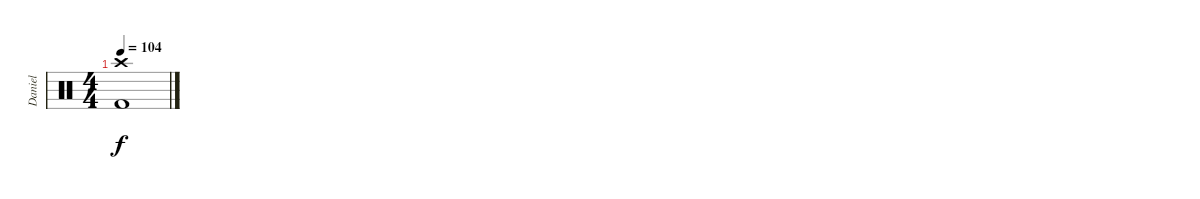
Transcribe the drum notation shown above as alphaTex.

\track ("Daniel" "Daniel") {instrument percussion}
\staff {score}
\articulation defaults
\ts (4 4)
\tempo 104
\clef neutral
\ks c
("Crash high (hit)" "Kick (hit) 2").1{dy f}
